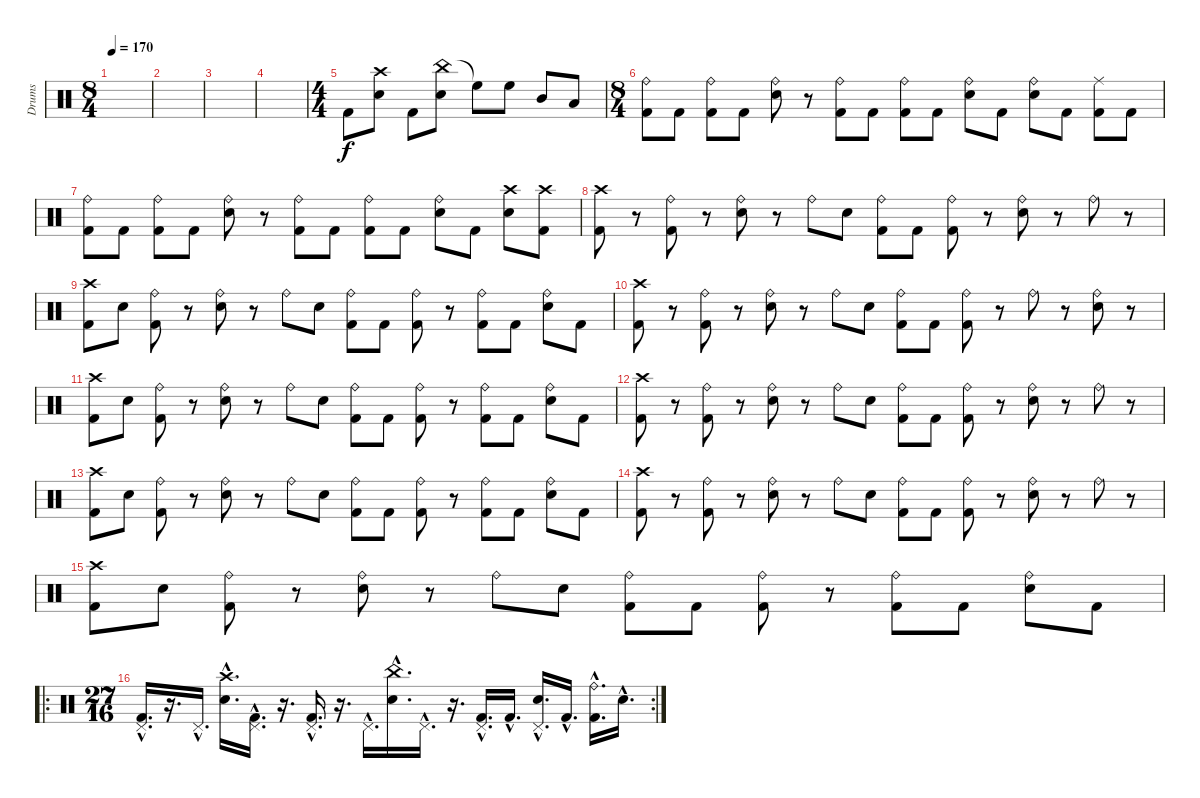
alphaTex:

\track ("Drums" "Drums") {instrument percussion}
\staff {score}
\articulation defaults
\ts (8 4)
\tempo 170
\clef neutral
\ks c
|
|
|
|
\ts (4 4)
"Kick (hit) 2".8 ("Crash high (hit)" "Snare (hit) 2").8 "Kick (hit) 2".8 ("China (hit)" "Snare (hit) 2").8 "High Floor Tom (hit)"{t}.8 "High Floor Tom (hit)".8 "Mid Tom (hit)".8 "Low Tom (hit)".8 |
\ts (8 4)
("Kick (hit) 2" "Ride (bell)").8 "Kick (hit) 2".8 ("Kick (hit) 2" "Ride (bell)").8 "Kick (hit) 2".8 ("Snare (hit) 2" "Ride (bell)").8 r.8 ("Kick (hit) 2" "Ride (bell)").8 "Kick (hit) 2".8 ("Kick (hit) 2" "Ride (bell)").8 "Kick (hit) 2".8 ("Snare (hit) 2" "Ride (bell)").8 "Kick (hit) 2".8 ("Snare (hit) 2" "Ride (bell)").8 "Kick (hit) 2".8 ("Kick (hit) 2" "Ride (middle)").8 "Kick (hit) 2".8 |
("Kick (hit) 2" "Ride (bell)").8 "Kick (hit) 2".8 ("Kick (hit) 2" "Ride (bell)").8 "Kick (hit) 2".8 ("Snare (hit) 2" "Ride (bell)").8 r.8 ("Kick (hit) 2" "Ride (bell)").8 "Kick (hit) 2".8 ("Kick (hit) 2" "Ride (bell)").8 "Kick (hit) 2".8 ("Snare (hit) 2" "Ride (bell)").8 "Kick (hit) 2".8 ("Snare (hit) 2" "Crash high (hit)").8 ("Kick (hit) 2" "Crash high (hit)").8 |
("Kick (hit) 2" "Crash high (hit)").8 r.8 ("Kick (hit) 2" "Ride (bell)").8 r.8 ("Snare (hit) 2" "Ride (bell)").8 r.8 "Ride (bell)".8 "Snare (hit) 2".8 ("Kick (hit) 2" "Ride (bell)").8 "Kick (hit) 2".8 ("Kick (hit) 2" "Ride (bell)").8 r.8 ("Snare (hit) 2" "Ride (bell)").8 r.8 "Ride (bell)".8 r.8 |
("Kick (hit) 2" "Crash high (hit)").8 "Snare (hit) 2".8 ("Kick (hit) 2" "Ride (bell)").8 r.8 ("Snare (hit) 2" "Ride (bell)").8 r.8 "Ride (bell)".8 "Snare (hit) 2".8 ("Kick (hit) 2" "Ride (bell)").8 "Kick (hit) 2".8 ("Kick (hit) 2" "Ride (bell)").8 r.8 ("Kick (hit) 2" "Ride (bell)").8 "Kick (hit) 2".8 ("Snare (hit) 2" "Ride (bell)").8 "Kick (hit) 2".8 |
("Kick (hit) 2" "Crash high (hit)").8 r.8 ("Kick (hit) 2" "Ride (bell)").8 r.8 ("Snare (hit) 2" "Ride (bell)").8 r.8 "Ride (bell)".8 "Snare (hit) 2".8 ("Kick (hit) 2" "Ride (bell)").8 "Kick (hit) 2".8 ("Kick (hit) 2" "Ride (bell)").8 r.8 "Ride (bell)".8 r.8 ("Snare (hit) 2" "Ride (bell)").8 r.8 |
("Kick (hit) 2" "Crash high (hit)").8 "Snare (hit) 2".8 ("Kick (hit) 2" "Ride (bell)").8 r.8 ("Snare (hit) 2" "Ride (bell)").8 r.8 "Ride (bell)".8 "Snare (hit) 2".8 ("Kick (hit) 2" "Ride (bell)").8 "Kick (hit) 2".8 ("Kick (hit) 2" "Ride (bell)").8 r.8 ("Kick (hit) 2" "Ride (bell)").8 "Kick (hit) 2".8 ("Snare (hit) 2" "Ride (bell)").8 "Kick (hit) 2".8 |
("Kick (hit) 2" "Crash high (hit)").8 r.8 ("Kick (hit) 2" "Ride (bell)").8 r.8 ("Snare (hit) 2" "Ride (bell)").8 r.8 "Ride (bell)".8 "Snare (hit) 2".8 ("Kick (hit) 2" "Ride (bell)").8 "Kick (hit) 2".8 ("Kick (hit) 2" "Ride (bell)").8 r.8 ("Snare (hit) 2" "Ride (bell)").8 r.8 "Ride (bell)".8 r.8 |
("Kick (hit) 2" "Crash high (hit)").8 "Snare (hit) 2".8 ("Kick (hit) 2" "Ride (bell)").8 r.8 ("Snare (hit) 2" "Ride (bell)").8 r.8 "Ride (bell)".8 "Snare (hit) 2".8 ("Kick (hit) 2" "Ride (bell)").8 "Kick (hit) 2".8 ("Kick (hit) 2" "Ride (bell)").8 r.8 ("Kick (hit) 2" "Ride (bell)").8 "Kick (hit) 2".8 ("Snare (hit) 2" "Ride (bell)").8 "Kick (hit) 2".8 |
("Kick (hit) 2" "Crash high (hit)").8 r.8 ("Kick (hit) 2" "Ride (bell)").8 r.8 ("Snare (hit) 2" "Ride (bell)").8 r.8 "Ride (bell)".8 "Snare (hit) 2".8 ("Kick (hit) 2" "Ride (bell)").8 "Kick (hit) 2".8 ("Kick (hit) 2" "Ride (bell)").8 r.8 ("Snare (hit) 2" "Ride (bell)").8 r.8 "Ride (bell)".8 r.8 |
("Kick (hit) 2" "Crash high (hit)").8 "Snare (hit) 2".8 ("Kick (hit) 2" "Ride (bell)").8 r.8 ("Snare (hit) 2" "Ride (bell)").8 r.8 "Ride (bell)".8 "Snare (hit) 2".8 ("Kick (hit) 2" "Ride (bell)").8 "Kick (hit) 2".8 ("Kick (hit) 2" "Ride (bell)").8 r.8 ("Kick (hit) 2" "Ride (bell)").8 "Kick (hit) 2".8 ("Snare (hit) 2" "Ride (bell)").8 "Kick (hit) 2".8 |
\ro
\rc 2
\ts (27 16)
("Pedal Hi-Hat (hit)"{hac} "Kick (hit) 2"{hac}).16{d} r.16{d} "Pedal Hi-Hat (hit)"{hac}.16{d} ("Crash high (hit)"{hac} "Snare (hit) 2"{hac}).16{d} ("Pedal Hi-Hat (hit)"{hac} "Kick (hit) 2"{hac}).16{d} r.16{d} ("Pedal Hi-Hat (hit)"{hac} "Kick (hit) 2"{hac}).16{d} r.16{d} "Pedal Hi-Hat (hit)"{hac}.16{d} ("China (hit)"{hac} "Snare (hit) 2"{hac}).16{d} "Pedal Hi-Hat (hit)"{hac}.16{d} r.16{d} ("Pedal Hi-Hat (hit)"{hac} "Kick (hit) 2"{hac}).16{d} "Kick (hit) 2"{hac}.16{d} ("Pedal Hi-Hat (hit)"{hac} "Snare (hit) 2"{hac}).16{d} "Kick (hit) 2"{hac}.16{d} ("Ride (bell)"{hac} "Kick (hit) 2"{hac}).16{d} "Snare (hit) 2"{hac}.16{d}
